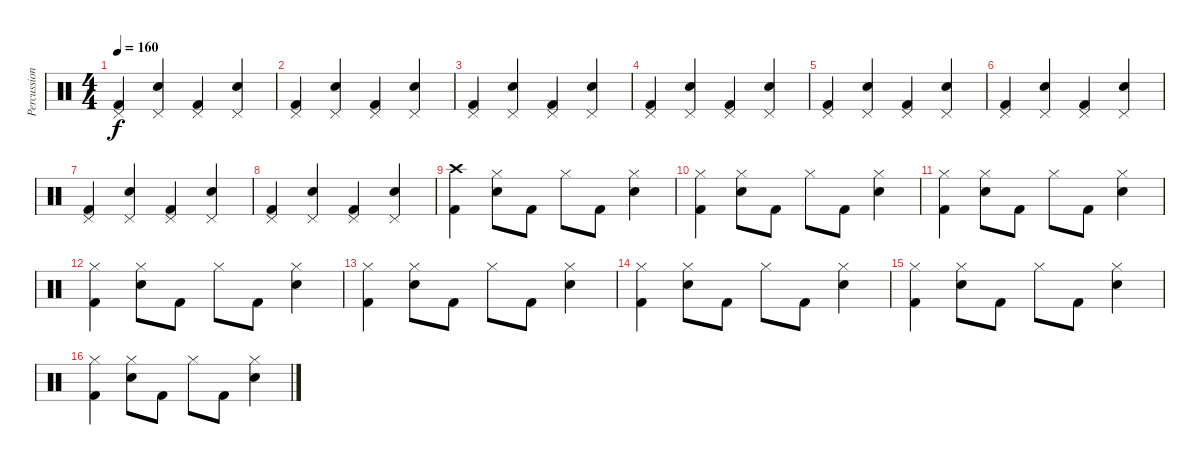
\track ("Percussion" "Percussion") {instrument percussion}
\staff {score}
\articulation defaults
\ts (4 4)
\tempo 160
\clef neutral
\ks c
("Pedal Hi-Hat (hit)" "Kick (hit) 2").4{dy f} ("Pedal Hi-Hat (hit)" "Electric Snare (hit)").4 ("Pedal Hi-Hat (hit)" "Kick (hit) 2").4 ("Pedal Hi-Hat (hit)" "Electric Snare (hit)").4 |
("Pedal Hi-Hat (hit)" "Kick (hit) 2").4 ("Pedal Hi-Hat (hit)" "Electric Snare (hit)").4 ("Pedal Hi-Hat (hit)" "Kick (hit) 2").4 ("Pedal Hi-Hat (hit)" "Electric Snare (hit)").4 |
("Pedal Hi-Hat (hit)" "Kick (hit) 2").4 ("Pedal Hi-Hat (hit)" "Electric Snare (hit)").4 ("Pedal Hi-Hat (hit)" "Kick (hit) 2").4 ("Pedal Hi-Hat (hit)" "Electric Snare (hit)").4 |
("Pedal Hi-Hat (hit)" "Kick (hit) 2").4 ("Pedal Hi-Hat (hit)" "Electric Snare (hit)").4 ("Pedal Hi-Hat (hit)" "Kick (hit) 2").4 ("Pedal Hi-Hat (hit)" "Electric Snare (hit)").4 |
("Pedal Hi-Hat (hit)" "Kick (hit) 2").4 ("Pedal Hi-Hat (hit)" "Electric Snare (hit)").4 ("Pedal Hi-Hat (hit)" "Kick (hit) 2").4 ("Pedal Hi-Hat (hit)" "Electric Snare (hit)").4 |
("Pedal Hi-Hat (hit)" "Kick (hit) 2").4 ("Pedal Hi-Hat (hit)" "Electric Snare (hit)").4 ("Pedal Hi-Hat (hit)" "Kick (hit) 2").4 ("Pedal Hi-Hat (hit)" "Electric Snare (hit)").4 |
("Pedal Hi-Hat (hit)" "Kick (hit) 2").4 ("Pedal Hi-Hat (hit)" "Electric Snare (hit)").4 ("Pedal Hi-Hat (hit)" "Kick (hit) 2").4 ("Pedal Hi-Hat (hit)" "Electric Snare (hit)").4 |
("Pedal Hi-Hat (hit)" "Kick (hit) 2").4 ("Pedal Hi-Hat (hit)" "Electric Snare (hit)").4 ("Pedal Hi-Hat (hit)" "Kick (hit) 2").4 ("Pedal Hi-Hat (hit)" "Electric Snare (hit)").4 |
("Crash high (hit)" "Kick (hit) 2").4 ("Hi-Hat (closed)" "Electric Snare (hit)").8 "Kick (hit) 2".8 "Hi-Hat (closed)".8 "Kick (hit) 2".8 ("Hi-Hat (closed)" "Electric Snare (hit)").4 |
("Hi-Hat (closed)" "Kick (hit) 2").4 ("Hi-Hat (closed)" "Electric Snare (hit)").8 "Kick (hit) 2".8 "Hi-Hat (closed)".8 "Kick (hit) 2".8 ("Hi-Hat (closed)" "Electric Snare (hit)").4 |
("Hi-Hat (closed)" "Kick (hit) 2").4 ("Hi-Hat (closed)" "Electric Snare (hit)").8 "Kick (hit) 2".8 "Hi-Hat (closed)".8 "Kick (hit) 2".8 ("Hi-Hat (closed)" "Electric Snare (hit)").4 |
("Hi-Hat (closed)" "Kick (hit) 2").4 ("Hi-Hat (closed)" "Electric Snare (hit)").8 "Kick (hit) 2".8 "Hi-Hat (closed)".8 "Kick (hit) 2".8 ("Hi-Hat (closed)" "Electric Snare (hit)").4 |
("Hi-Hat (closed)" "Kick (hit) 2").4 ("Hi-Hat (closed)" "Electric Snare (hit)").8 "Kick (hit) 2".8 "Hi-Hat (closed)".8 "Kick (hit) 2".8 ("Hi-Hat (closed)" "Electric Snare (hit)").4 |
("Hi-Hat (closed)" "Kick (hit) 2").4 ("Hi-Hat (closed)" "Electric Snare (hit)").8 "Kick (hit) 2".8 "Hi-Hat (closed)".8 "Kick (hit) 2".8 ("Hi-Hat (closed)" "Electric Snare (hit)").4 |
("Hi-Hat (closed)" "Kick (hit) 2").4 ("Hi-Hat (closed)" "Electric Snare (hit)").8 "Kick (hit) 2".8 "Hi-Hat (closed)".8 "Kick (hit) 2".8 ("Hi-Hat (closed)" "Electric Snare (hit)").4 |
("Hi-Hat (closed)" "Kick (hit) 2").4 ("Hi-Hat (closed)" "Electric Snare (hit)").8 "Kick (hit) 2".8 "Hi-Hat (closed)".8 "Kick (hit) 2".8 ("Hi-Hat (closed)" "Electric Snare (hit)").4
